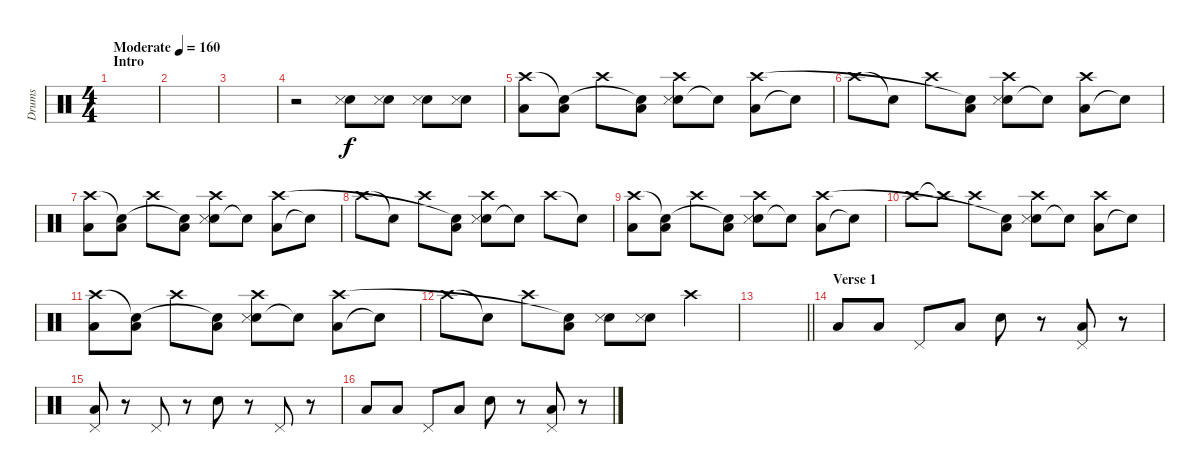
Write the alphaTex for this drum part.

\track ("Drums" "Drums") {instrument percussion}
\staff {score}
\articulation defaults
\ts (4 4)
\section ("" "Intro")
\tempo (160 "Moderate")
\clef neutral
\ks c
|
|
|
r.2 ("Snare (hit) 2" "Snare (side stick) 3").8 ("Snare (hit) 2" "Snare (side stick) 3").8 ("Snare (hit) 2" "Snare (side stick) 3").8 ("Snare (hit) 2" "Snare (side stick) 3").8 |
("Low Floor Tom (hit)" "Crash high (hit)").8 ("Low Floor Tom (hit)" "Snare (hit)"{t}).8 "Crash high (hit)".8 ("Low Floor Tom (hit)" "Snare (hit)"{t}).8 ("Snare (hit) 2" "Snare (side stick) 3" "Crash high (hit)").8 "Snare (hit)"{t}.8 ("Low Floor Tom (hit)" "Crash high (hit)").8 "Snare (hit)"{t}.8 |
"Crash high (hit)".8 "Snare (hit)"{t}.8 "Crash high (hit)".8 ("Low Floor Tom (hit)" "Snare (hit)"{t}).8 ("Snare (hit) 2" "Snare (side stick) 3" "Crash high (hit)").8 "Snare (hit)"{t}.8 ("Low Floor Tom (hit)" "Crash high (hit)").8 "Snare (hit)"{t}.8 |
("Low Floor Tom (hit)" "Crash high (hit)").8 ("Low Floor Tom (hit)" "Snare (hit)"{t}).8 "Crash high (hit)".8 ("Low Floor Tom (hit)" "Snare (hit)"{t}).8 ("Snare (hit) 2" "Snare (side stick) 3" "Crash high (hit)").8 "Snare (hit)"{t}.8 ("Low Floor Tom (hit)" "Crash high (hit)").8 "Snare (hit)"{t}.8 |
"Crash high (hit)".8 "Snare (hit)"{t}.8 "Crash high (hit)".8 ("Low Floor Tom (hit)" "Snare (hit)"{t}).8 ("Snare (hit) 2" "Snare (side stick) 3" "Crash high (hit)").8 "Snare (hit)"{t}.8 "Crash high (hit)".8 "Snare (hit)"{t}.8 |
("Low Floor Tom (hit)" "Crash high (hit)").8 ("Low Floor Tom (hit)" "Snare (hit)"{t}).8 "Crash high (hit)".8 ("Low Floor Tom (hit)" "Snare (hit)"{t}).8 ("Snare (hit) 2" "Snare (side stick) 3" "Crash high (hit)").8 "Snare (hit)"{t}.8 ("Low Floor Tom (hit)" "Crash high (hit)").8 "Snare (hit)"{t}.8 |
"Crash high (hit)".8 "Crash high (hit)"{t}.8 "Crash high (hit)".8 ("Low Floor Tom (hit)" "Snare (hit)"{t}).8 ("Snare (hit) 2" "Snare (side stick) 3" "Crash high (hit)").8 "Snare (hit)"{t}.8 ("Low Floor Tom (hit)" "Crash high (hit)").8 "Snare (hit)"{t}.8 |
("Low Floor Tom (hit)" "Crash high (hit)").8 ("Low Floor Tom (hit)" "Snare (hit)"{t}).8 "Crash high (hit)".8 ("Low Floor Tom (hit)" "Snare (hit)"{t}).8 ("Snare (hit) 2" "Snare (side stick) 3" "Crash high (hit)").8 "Snare (hit)"{t}.8 ("Low Floor Tom (hit)" "Crash high (hit)").8 "Snare (hit)"{t}.8 |
"Crash high (hit)".8 "Snare (hit)"{t}.8 "Crash high (hit)".8 ("Low Floor Tom (hit)" "Snare (hit)"{t}).8 ("Snare (hit) 2" "Snare (side stick) 3").8 ("Snare (hit) 2" "Snare (side stick) 3").8 "Crash high (hit)".4 |
\barLineRight lightlight
|
\section ("" "Verse 1")
"Low Floor Tom (hit)".8 "Low Floor Tom (hit)".8 "Pedal Hi-Hat (hit)".8 "Low Floor Tom (hit)".8 "Snare (hit) 2".8 r.8 ("Low Floor Tom (hit)" "Pedal Hi-Hat (hit)").8 r.8 |
("Low Floor Tom (hit)" "Pedal Hi-Hat (hit)").8 r.8 "Pedal Hi-Hat (hit)".8 r.8 "Snare (hit) 2".8 r.8 "Pedal Hi-Hat (hit)".8 r.8 |
"Low Floor Tom (hit)".8 "Low Floor Tom (hit)".8 "Pedal Hi-Hat (hit)".8 "Low Floor Tom (hit)".8 "Snare (hit) 2".8 r.8 ("Low Floor Tom (hit)" "Pedal Hi-Hat (hit)").8 r.8
